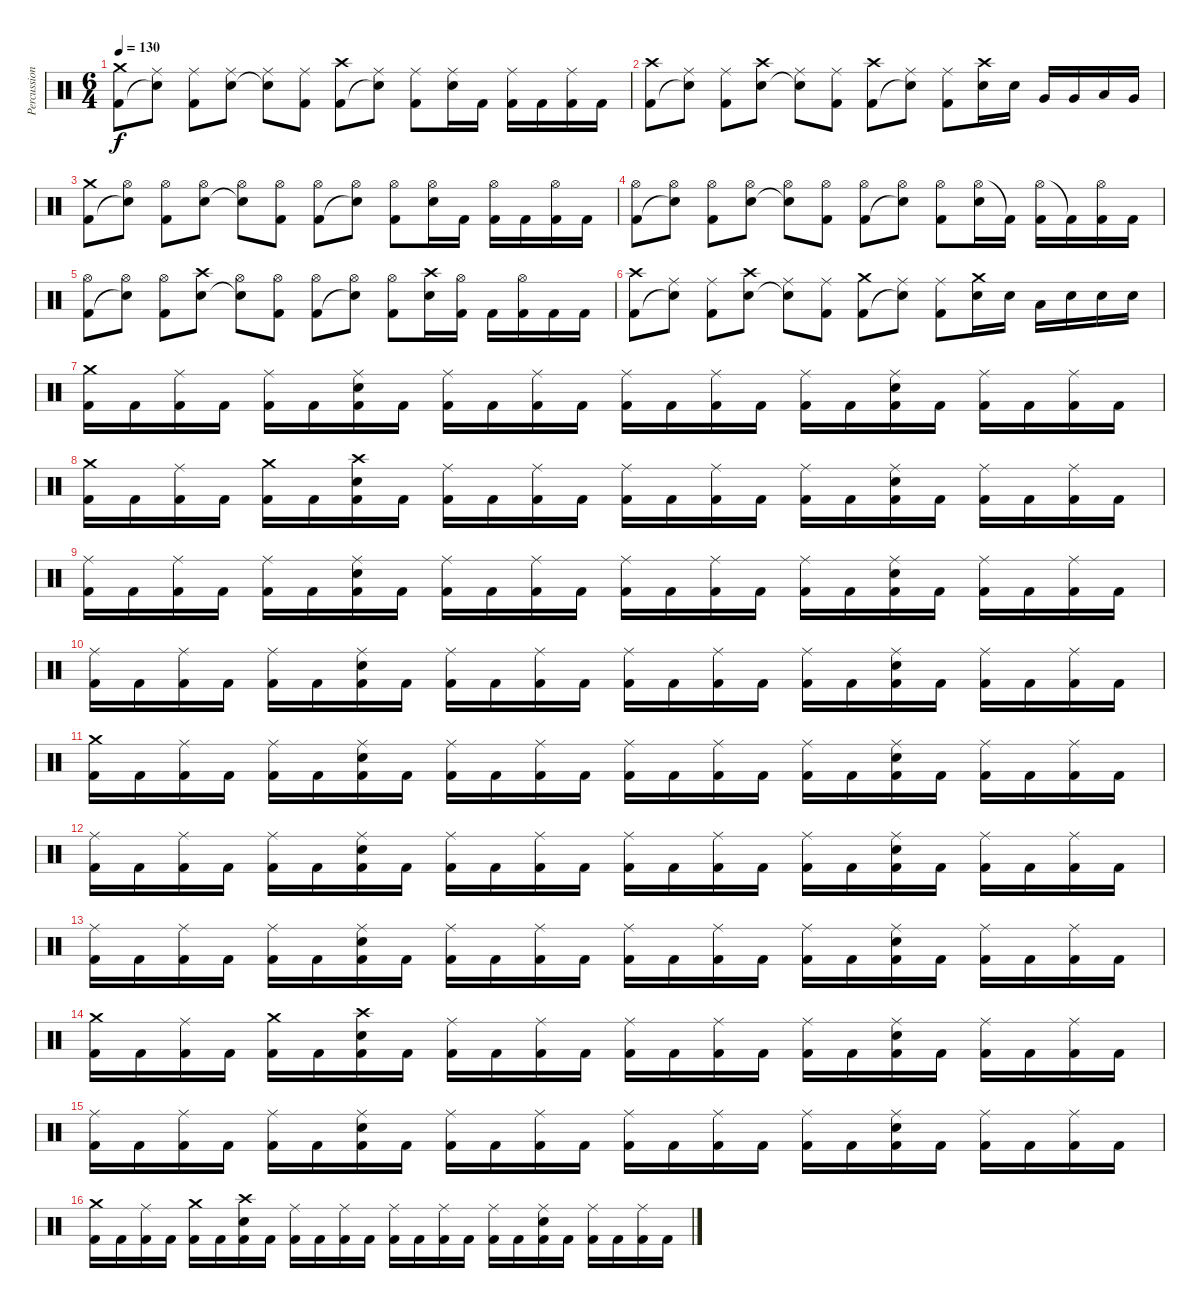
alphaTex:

\track ("Percussion" "Percussion") {instrument percussion}
\staff {score}
\articulation defaults
\ts (6 4)
\tempo 130
\clef neutral
\ks c
("Crash medium (hit)" "Kick (hit) 2").8{dy f} ("Ride (middle)" "Snare (hit)"{t}).8 ("Ride (middle)" "Kick (hit) 2").8 ("Ride (middle)" "Snare (hit) 2").8 ("Ride (middle)" "Snare (hit)"{t}).8 ("Ride (middle)" "Kick (hit) 2").8 ("Crash high (hit)" "Kick (hit) 2").8 ("Ride (middle)" "Snare (hit)"{t}).8 ("Ride (middle)" "Kick (hit) 2").8 ("Ride (middle)" "Snare (hit) 2").16 "Kick (hit) 2".16 ("Ride (middle)" "Kick (hit) 2").16 "Kick (hit) 2".16 ("Ride (middle)" "Kick (hit) 2").16 "Kick (hit) 2".16 |
("Crash high (hit)" "Kick (hit) 2").8 ("Ride (middle)" "Snare (hit)"{t}).8 ("Ride (middle)" "Kick (hit) 2").8 ("Crash high (hit)" "Snare (hit) 2").8 ("Ride (middle)" "Snare (hit)"{t}).8 ("Ride (middle)" "Kick (hit) 2").8 ("Crash high (hit)" "Kick (hit) 2").8 ("Ride (middle)" "Snare (hit)"{t}).8 ("Ride (middle)" "Kick (hit) 2").8 ("Crash high (hit)" "Snare (hit) 2").16 "Snare (hit) 2".16 "Very Low Tom (hit)".16 "Very Low Tom (hit)".16 "Low Tom (hit)".16 "Very Low Tom (hit)".16 |
("Crash medium (hit)" "Kick (hit) 2").8 ("Hi-Hat (open)" "Snare (hit)"{t}).8 ("Hi-Hat (open)" "Kick (hit) 2").8 ("Hi-Hat (open)" "Snare (hit) 2").8 ("Hi-Hat (open)" "Snare (hit)"{t}).8 ("Hi-Hat (open)" "Kick (hit) 2").8 ("Hi-Hat (open)" "Kick (hit) 2").8 ("Hi-Hat (open)" "Snare (hit)"{t}).8 ("Hi-Hat (open)" "Kick (hit) 2").8 ("Hi-Hat (open)" "Snare (hit) 2").16 "Kick (hit) 2".16 ("Hi-Hat (open)" "Kick (hit) 2").16 "Kick (hit) 2".16 ("Hi-Hat (open)" "Kick (hit) 2").16 "Kick (hit) 2".16 |
("Hi-Hat (open)" "Kick (hit) 2").8 ("Hi-Hat (open)" "Snare (hit)"{t}).8 ("Hi-Hat (open)" "Kick (hit) 2").8 ("Hi-Hat (open)" "Snare (hit) 2").8 ("Hi-Hat (open)" "Snare (hit)"{t}).8 ("Hi-Hat (open)" "Kick (hit) 2").8 ("Hi-Hat (open)" "Kick (hit) 2").8 ("Hi-Hat (open)" "Snare (hit)"{t}).8 ("Hi-Hat (open)" "Kick (hit) 2").8 ("Hi-Hat (open)" "Snare (hit) 2").16 "Kick (hit) 2"{t}.16 ("Hi-Hat (open)" "Kick (hit) 2").16 "Kick (hit) 2"{t}.16 ("Hi-Hat (open)" "Kick (hit) 2").16 "Kick (hit) 2".16 |
("Hi-Hat (open)" "Kick (hit) 2").8 ("Hi-Hat (open)" "Snare (hit)"{t}).8 ("Hi-Hat (open)" "Kick (hit) 2").8 ("Crash high (hit)" "Snare (hit) 2").8 ("Hi-Hat (open)" "Snare (hit)"{t}).8 ("Hi-Hat (open)" "Kick (hit) 2").8 ("Hi-Hat (open)" "Kick (hit) 2").8 ("Hi-Hat (open)" "Snare (hit)"{t}).8 ("Hi-Hat (open)" "Kick (hit) 2").8 ("Crash high (hit)" "Snare (hit) 2").16 ("Hi-Hat (open)" "Kick (hit) 2").16 "Kick (hit) 2".16 ("Hi-Hat (open)" "Kick (hit) 2").16 "Kick (hit) 2".16 "Kick (hit) 2".16 |
("Crash high (hit)" "Kick (hit) 2").8 ("Ride (middle)" "Snare (hit)"{t}).8 ("Ride (middle)" "Kick (hit) 2").8 ("Crash high (hit)" "Snare (hit) 2").8 ("Ride (middle)" "Snare (hit)"{t}).8 ("Ride (middle)" "Kick (hit) 2").8 ("Crash medium (hit)" "Kick (hit) 2").8 ("Ride (middle)" "Snare (hit)"{t}).8 ("Ride (middle)" "Kick (hit) 2").8 ("Crash medium (hit)" "Snare (hit) 2").16 "Snare (hit) 2".16 "Low Tom (hit)".16 "Snare (hit) 2".16 "Snare (hit) 2".16 "Snare (hit) 2".16 |
("Crash medium (hit)" "Kick (hit) 2").16 "Kick (hit) 2".16 ("Ride (middle)" "Kick (hit) 2").16 "Kick (hit) 2".16 ("Ride (middle)" "Kick (hit) 2").16 "Kick (hit) 2".16 ("Ride (middle)" "Snare (hit) 2" "Kick (hit) 2").16 "Kick (hit) 2".16 ("Ride (middle)" "Kick (hit) 2").16 "Kick (hit) 2".16 ("Ride (middle)" "Kick (hit) 2").16 "Kick (hit) 2".16 ("Ride (middle)" "Kick (hit) 2").16 "Kick (hit) 2".16 ("Ride (middle)" "Kick (hit) 2").16 "Kick (hit) 2".16 ("Ride (middle)" "Kick (hit) 2").16 "Kick (hit) 2".16 ("Ride (middle)" "Snare (hit) 2" "Kick (hit) 2").16 "Kick (hit) 2".16 ("Ride (middle)" "Kick (hit) 2").16 "Kick (hit) 2".16 ("Ride (middle)" "Kick (hit) 2").16 "Kick (hit) 2".16 |
("Crash medium (hit)" "Kick (hit) 2").16 "Kick (hit) 2".16 ("Ride (middle)" "Kick (hit) 2").16 "Kick (hit) 2".16 ("Crash medium (hit)" "Kick (hit) 2").16 "Kick (hit) 2".16 ("Crash high (hit)" "Snare (hit) 2" "Kick (hit) 2").16 "Kick (hit) 2".16 ("Ride (middle)" "Kick (hit) 2").16 "Kick (hit) 2".16 ("Ride (middle)" "Kick (hit) 2").16 "Kick (hit) 2".16 ("Ride (middle)" "Kick (hit) 2").16 "Kick (hit) 2".16 ("Ride (middle)" "Kick (hit) 2").16 "Kick (hit) 2".16 ("Ride (middle)" "Kick (hit) 2").16 "Kick (hit) 2".16 ("Ride (middle)" "Snare (hit) 2" "Kick (hit) 2").16 "Kick (hit) 2".16 ("Ride (middle)" "Kick (hit) 2").16 "Kick (hit) 2".16 ("Ride (middle)" "Kick (hit) 2").16 "Kick (hit) 2".16 |
("Ride (middle)" "Kick (hit) 2").16 "Kick (hit) 2".16 ("Ride (middle)" "Kick (hit) 2").16 "Kick (hit) 2".16 ("Ride (middle)" "Kick (hit) 2").16 "Kick (hit) 2".16 ("Ride (middle)" "Snare (hit) 2" "Kick (hit) 2").16 "Kick (hit) 2".16 ("Ride (middle)" "Kick (hit) 2").16 "Kick (hit) 2".16 ("Ride (middle)" "Kick (hit) 2").16 "Kick (hit) 2".16 ("Ride (middle)" "Kick (hit) 2").16 "Kick (hit) 2".16 ("Ride (middle)" "Kick (hit) 2").16 "Kick (hit) 2".16 ("Ride (middle)" "Kick (hit) 2").16 "Kick (hit) 2".16 ("Ride (middle)" "Snare (hit) 2" "Kick (hit) 2").16 "Kick (hit) 2".16 ("Ride (middle)" "Kick (hit) 2").16 "Kick (hit) 2".16 ("Ride (middle)" "Kick (hit) 2").16 "Kick (hit) 2".16 |
("Ride (middle)" "Kick (hit) 2").16 "Kick (hit) 2".16 ("Ride (middle)" "Kick (hit) 2").16 "Kick (hit) 2".16 ("Ride (middle)" "Kick (hit) 2").16 "Kick (hit) 2".16 ("Ride (middle)" "Snare (hit) 2" "Kick (hit) 2").16 "Kick (hit) 2".16 ("Ride (middle)" "Kick (hit) 2").16 "Kick (hit) 2".16 ("Ride (middle)" "Kick (hit) 2").16 "Kick (hit) 2".16 ("Ride (middle)" "Kick (hit) 2").16 "Kick (hit) 2".16 ("Ride (middle)" "Kick (hit) 2").16 "Kick (hit) 2".16 ("Ride (middle)" "Kick (hit) 2").16 "Kick (hit) 2".16 ("Ride (middle)" "Snare (hit) 2" "Kick (hit) 2").16 "Kick (hit) 2".16 ("Ride (middle)" "Kick (hit) 2").16 "Kick (hit) 2".16 ("Ride (middle)" "Kick (hit) 2").16 "Kick (hit) 2".16 |
("Crash medium (hit)" "Kick (hit) 2").16 "Kick (hit) 2".16 ("Ride (middle)" "Kick (hit) 2").16 "Kick (hit) 2".16 ("Ride (middle)" "Kick (hit) 2").16 "Kick (hit) 2".16 ("Ride (middle)" "Snare (hit) 2" "Kick (hit) 2").16 "Kick (hit) 2".16 ("Ride (middle)" "Kick (hit) 2").16 "Kick (hit) 2".16 ("Ride (middle)" "Kick (hit) 2").16 "Kick (hit) 2".16 ("Ride (middle)" "Kick (hit) 2").16 "Kick (hit) 2".16 ("Ride (middle)" "Kick (hit) 2").16 "Kick (hit) 2".16 ("Ride (middle)" "Kick (hit) 2").16 "Kick (hit) 2".16 ("Ride (middle)" "Snare (hit) 2" "Kick (hit) 2").16 "Kick (hit) 2".16 ("Ride (middle)" "Kick (hit) 2").16 "Kick (hit) 2".16 ("Ride (middle)" "Kick (hit) 2").16 "Kick (hit) 2".16 |
("Ride (middle)" "Kick (hit) 2").16 "Kick (hit) 2".16 ("Ride (middle)" "Kick (hit) 2").16 "Kick (hit) 2".16 ("Ride (middle)" "Kick (hit) 2").16 "Kick (hit) 2".16 ("Ride (middle)" "Snare (hit) 2" "Kick (hit) 2").16 "Kick (hit) 2".16 ("Ride (middle)" "Kick (hit) 2").16 "Kick (hit) 2".16 ("Ride (middle)" "Kick (hit) 2").16 "Kick (hit) 2".16 ("Ride (middle)" "Kick (hit) 2").16 "Kick (hit) 2".16 ("Ride (middle)" "Kick (hit) 2").16 "Kick (hit) 2".16 ("Ride (middle)" "Kick (hit) 2").16 "Kick (hit) 2".16 ("Ride (middle)" "Snare (hit) 2" "Kick (hit) 2").16 "Kick (hit) 2".16 ("Ride (middle)" "Kick (hit) 2").16 "Kick (hit) 2".16 ("Ride (middle)" "Kick (hit) 2").16 "Kick (hit) 2".16 |
("Ride (middle)" "Kick (hit) 2").16 "Kick (hit) 2".16 ("Ride (middle)" "Kick (hit) 2").16 "Kick (hit) 2".16 ("Ride (middle)" "Kick (hit) 2").16 "Kick (hit) 2".16 ("Ride (middle)" "Snare (hit) 2" "Kick (hit) 2").16 "Kick (hit) 2".16 ("Ride (middle)" "Kick (hit) 2").16 "Kick (hit) 2".16 ("Ride (middle)" "Kick (hit) 2").16 "Kick (hit) 2".16 ("Ride (middle)" "Kick (hit) 2").16 "Kick (hit) 2".16 ("Ride (middle)" "Kick (hit) 2").16 "Kick (hit) 2".16 ("Ride (middle)" "Kick (hit) 2").16 "Kick (hit) 2".16 ("Ride (middle)" "Snare (hit) 2" "Kick (hit) 2").16 "Kick (hit) 2".16 ("Ride (middle)" "Kick (hit) 2").16 "Kick (hit) 2".16 ("Ride (middle)" "Kick (hit) 2").16 "Kick (hit) 2".16 |
("Crash medium (hit)" "Kick (hit) 2").16 "Kick (hit) 2".16 ("Ride (middle)" "Kick (hit) 2").16 "Kick (hit) 2".16 ("Crash medium (hit)" "Kick (hit) 2").16 "Kick (hit) 2".16 ("Crash high (hit)" "Snare (hit) 2" "Kick (hit) 2").16 "Kick (hit) 2".16 ("Ride (middle)" "Kick (hit) 2").16 "Kick (hit) 2".16 ("Ride (middle)" "Kick (hit) 2").16 "Kick (hit) 2".16 ("Ride (middle)" "Kick (hit) 2").16 "Kick (hit) 2".16 ("Ride (middle)" "Kick (hit) 2").16 "Kick (hit) 2".16 ("Ride (middle)" "Kick (hit) 2").16 "Kick (hit) 2".16 ("Ride (middle)" "Snare (hit) 2" "Kick (hit) 2").16 "Kick (hit) 2".16 ("Ride (middle)" "Kick (hit) 2").16 "Kick (hit) 2".16 ("Ride (middle)" "Kick (hit) 2").16 "Kick (hit) 2".16 |
("Ride (middle)" "Kick (hit) 2").16 "Kick (hit) 2".16 ("Ride (middle)" "Kick (hit) 2").16 "Kick (hit) 2".16 ("Ride (middle)" "Kick (hit) 2").16 "Kick (hit) 2".16 ("Ride (middle)" "Snare (hit) 2" "Kick (hit) 2").16 "Kick (hit) 2".16 ("Ride (middle)" "Kick (hit) 2").16 "Kick (hit) 2".16 ("Ride (middle)" "Kick (hit) 2").16 "Kick (hit) 2".16 ("Ride (middle)" "Kick (hit) 2").16 "Kick (hit) 2".16 ("Ride (middle)" "Kick (hit) 2").16 "Kick (hit) 2".16 ("Ride (middle)" "Kick (hit) 2").16 "Kick (hit) 2".16 ("Ride (middle)" "Snare (hit) 2" "Kick (hit) 2").16 "Kick (hit) 2".16 ("Ride (middle)" "Kick (hit) 2").16 "Kick (hit) 2".16 ("Ride (middle)" "Kick (hit) 2").16 "Kick (hit) 2".16 |
("Crash medium (hit)" "Kick (hit) 2").16 "Kick (hit) 2".16 ("Ride (middle)" "Kick (hit) 2").16 "Kick (hit) 2".16 ("Crash medium (hit)" "Kick (hit) 2").16 "Kick (hit) 2".16 ("Crash high (hit)" "Snare (hit) 2" "Kick (hit) 2").16 "Kick (hit) 2".16 ("Ride (middle)" "Kick (hit) 2").16 "Kick (hit) 2".16 ("Ride (middle)" "Kick (hit) 2").16 "Kick (hit) 2".16 ("Ride (middle)" "Kick (hit) 2").16 "Kick (hit) 2".16 ("Ride (middle)" "Kick (hit) 2").16 "Kick (hit) 2".16 ("Ride (middle)" "Kick (hit) 2").16 "Kick (hit) 2".16 ("Ride (middle)" "Snare (hit) 2" "Kick (hit) 2").16 "Kick (hit) 2".16 ("Ride (middle)" "Kick (hit) 2").16 "Kick (hit) 2".16 ("Ride (middle)" "Kick (hit) 2").16 "Kick (hit) 2".16
